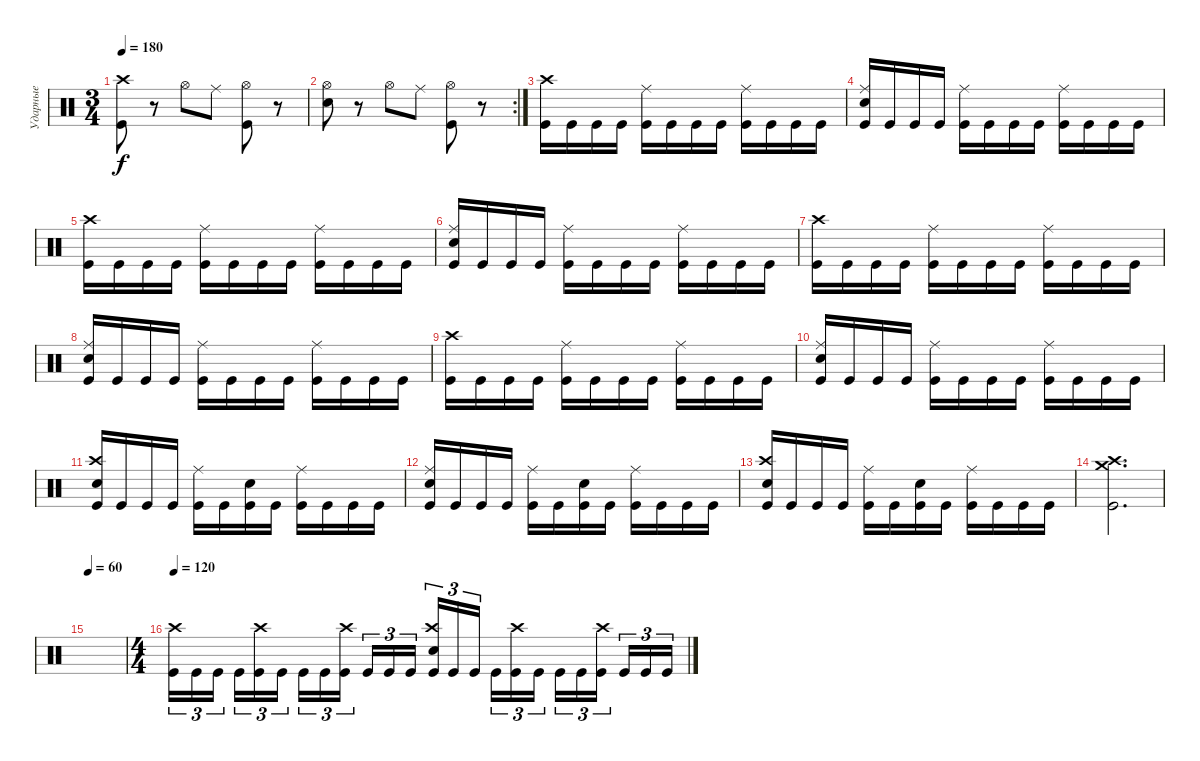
\track ("Ударные" "Ударные") {instrument percussion}
\staff {score}
\articulation defaults
\ts (3 4)
\tempo 180
\clef neutral
\ks c
("Kick (hit)" "Crash high (hit)").8{dy f} r.8 "Hi-Hat (open)".8 "Ride (middle)".8 ("Kick (hit)" "Hi-Hat (open)").8 r.8 |
\rc 2
("Hi-Hat (open)" "Snare (hit) 2").8 r.8 "Hi-Hat (open)".8 "Ride (middle)".8 ("Kick (hit)" "Hi-Hat (open)").8 r.8 |
("Crash high (hit)" "Kick (hit)").16 "Kick (hit)".16 "Kick (hit)".16 "Kick (hit)".16 ("Ride (middle)" "Kick (hit)").16 "Kick (hit)".16 "Kick (hit)".16 "Kick (hit)".16 ("Ride (middle)" "Kick (hit)").16 "Kick (hit)".16 "Kick (hit)".16 "Kick (hit)".16 |
("Snare (hit) 2" "Ride (middle)" "Kick (hit)").16 "Kick (hit)".16 "Kick (hit)".16 "Kick (hit)".16 ("Ride (middle)" "Kick (hit)").16 "Kick (hit)".16 "Kick (hit)".16 "Kick (hit)".16 ("Ride (middle)" "Kick (hit)").16 "Kick (hit)".16 "Kick (hit)".16 "Kick (hit)".16 |
("Crash high (hit)" "Kick (hit)").16 "Kick (hit)".16 "Kick (hit)".16 "Kick (hit)".16 ("Ride (middle)" "Kick (hit)").16 "Kick (hit)".16 "Kick (hit)".16 "Kick (hit)".16 ("Ride (middle)" "Kick (hit)").16 "Kick (hit)".16 "Kick (hit)".16 "Kick (hit)".16 |
("Snare (hit) 2" "Ride (middle)" "Kick (hit)").16 "Kick (hit)".16 "Kick (hit)".16 "Kick (hit)".16 ("Ride (middle)" "Kick (hit)").16 "Kick (hit)".16 "Kick (hit)".16 "Kick (hit)".16 ("Ride (middle)" "Kick (hit)").16 "Kick (hit)".16 "Kick (hit)".16 "Kick (hit)".16 |
("Crash high (hit)" "Kick (hit)").16 "Kick (hit)".16 "Kick (hit)".16 "Kick (hit)".16 ("Ride (middle)" "Kick (hit)").16 "Kick (hit)".16 "Kick (hit)".16 "Kick (hit)".16 ("Ride (middle)" "Kick (hit)").16 "Kick (hit)".16 "Kick (hit)".16 "Kick (hit)".16 |
("Snare (hit) 2" "Ride (middle)" "Kick (hit)").16 "Kick (hit)".16 "Kick (hit)".16 "Kick (hit)".16 ("Ride (middle)" "Kick (hit)").16 "Kick (hit)".16 "Kick (hit)".16 "Kick (hit)".16 ("Ride (middle)" "Kick (hit)").16 "Kick (hit)".16 "Kick (hit)".16 "Kick (hit)".16 |
("Crash high (hit)" "Kick (hit)").16 "Kick (hit)".16 "Kick (hit)".16 "Kick (hit)".16 ("Ride (middle)" "Kick (hit)").16 "Kick (hit)".16 "Kick (hit)".16 "Kick (hit)".16 ("Ride (middle)" "Kick (hit)").16 "Kick (hit)".16 "Kick (hit)".16 "Kick (hit)".16 |
("Snare (hit) 2" "Ride (middle)" "Kick (hit)").16 "Kick (hit)".16 "Kick (hit)".16 "Kick (hit)".16 ("Ride (middle)" "Kick (hit)").16 "Kick (hit)".16 "Kick (hit)".16 "Kick (hit)".16 ("Ride (middle)" "Kick (hit)").16 "Kick (hit)".16 "Kick (hit)".16 "Kick (hit)".16 |
("Snare (hit) 2" "Crash high (hit)" "Kick (hit)").16 "Kick (hit)".16 "Kick (hit)".16 "Kick (hit)".16 ("Ride (middle)" "Kick (hit)").16 "Kick (hit)".16 ("Snare (hit) 2" "Kick (hit)").16 "Kick (hit)".16 ("Ride (middle)" "Kick (hit)").16 "Kick (hit)".16 "Kick (hit)".16 "Kick (hit)".16 |
("Snare (hit) 2" "Ride (middle)" "Kick (hit)").16 "Kick (hit)".16 "Kick (hit)".16 "Kick (hit)".16 ("Ride (middle)" "Kick (hit)").16 "Kick (hit)".16 ("Snare (hit) 2" "Kick (hit)").16 "Kick (hit)".16 ("Ride (middle)" "Kick (hit)").16 "Kick (hit)".16 "Kick (hit)".16 "Kick (hit)".16 |
("Snare (hit) 2" "Crash high (hit)" "Kick (hit)").16 "Kick (hit)".16 "Kick (hit)".16 "Kick (hit)".16 ("Ride (middle)" "Kick (hit)").16 "Kick (hit)".16 ("Snare (hit) 2" "Kick (hit)").16 "Kick (hit)".16 ("Ride (middle)" "Kick (hit)").16 "Kick (hit)".16 "Kick (hit)".16 "Kick (hit)".16 |
("Crash medium (hit)" "Crash high (hit)" "Kick (hit)").2{d} |
\tempo 60
|
\ts (4 4)
\tempo 120
("Crash high (hit)" "Kick (hit)").16{tu (3 2)} "Kick (hit)".16{tu (3 2)} "Kick (hit)".16{tu (3 2) beam splitsecondary} "Kick (hit)".16{tu (3 2)} ("Crash high (hit)" "Kick (hit)").16{tu (3 2)} "Kick (hit)".16{tu (3 2)} "Kick (hit)".16{tu (3 2)} "Kick (hit)".16{tu (3 2)} ("Crash high (hit)" "Kick (hit)").16{tu (3 2) beam splitsecondary} "Kick (hit)".16{tu (3 2)} "Kick (hit)".16{tu (3 2)} "Kick (hit)".16{tu (3 2)} ("Crash high (hit)" "Snare (hit) 2" "Kick (hit)").16{tu (3 2)} "Kick (hit)".16{tu (3 2)} "Kick (hit)".16{tu (3 2) beam splitsecondary} "Kick (hit)".16{tu (3 2)} ("Crash high (hit)" "Kick (hit)").16{tu (3 2)} "Kick (hit)".16{tu (3 2)} "Kick (hit)".16{tu (3 2)} "Kick (hit)".16{tu (3 2)} ("Crash high (hit)" "Kick (hit)").16{tu (3 2) beam splitsecondary} "Kick (hit)".16{tu (3 2)} "Kick (hit)".16{tu (3 2)} "Kick (hit)".16{tu (3 2)}
